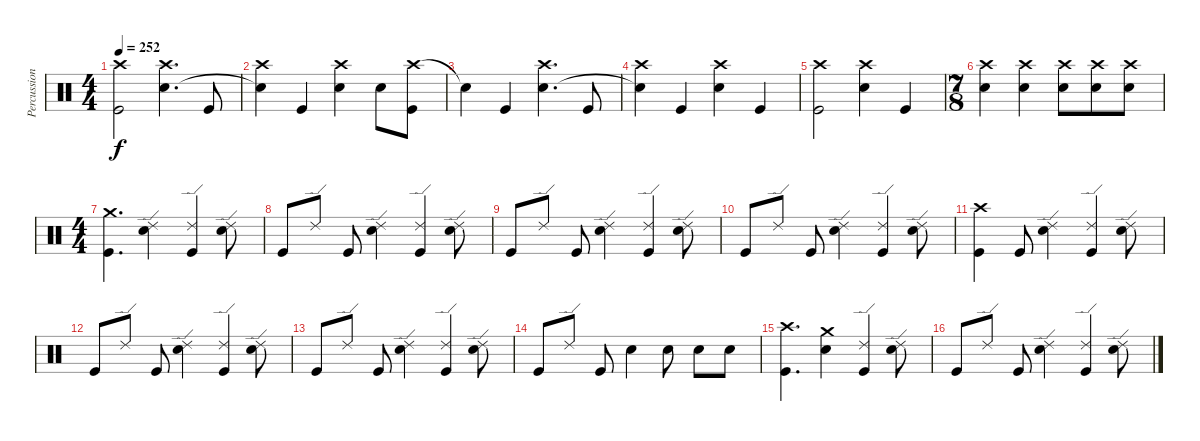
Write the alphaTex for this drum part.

\track ("Percussion" "Percussion") {instrument percussion}
\staff {score}
\articulation defaults
\ts (4 4)
\tempo 252
\clef neutral
\ks c
("Crash high (hit)" "Kick (hit)").2{dy f} ("Crash high (hit)" "Electric Snare (hit)").4{d} "Kick (hit)".8 |
("Crash high (hit)" "Snare (hit)"{t}).4 "Kick (hit)".4 ("Crash high (hit)" "Electric Snare (hit)").4 "Electric Snare (hit)".8 ("Crash high (hit)" "Kick (hit)").8 |
"Snare (hit)"{t}.4 "Kick (hit)".4 ("Crash high (hit)" "Electric Snare (hit)").4{d} "Kick (hit)".8 |
("Crash high (hit)" "Snare (hit)"{t}).4 "Kick (hit)".4 ("Crash high (hit)" "Electric Snare (hit)").4 "Kick (hit)".4 |
("Crash high (hit)" "Kick (hit)").2 ("Crash high (hit)" "Electric Snare (hit)").4 "Kick (hit)".4 |
\ts (7 8)
("Crash high (hit)" "Electric Snare (hit)").4 ("Crash high (hit)" "Electric Snare (hit)").4 ("Crash high (hit)" "Electric Snare (hit)").8 ("Crash high (hit)" "Electric Snare (hit)").8 ("Crash high (hit)" "Electric Snare (hit)").8 |
\ts (4 4)
("Crash medium (hit)" "Kick (hit)").4{d} ("Ride (edge) 2" "Electric Snare (hit)").4 ("Ride (edge) 2" "Kick (hit)").4 ("Ride (edge) 2" "Electric Snare (hit)").8 |
"Kick (hit)".8 "Ride (edge) 2".8 "Kick (hit)".8 ("Ride (edge) 2" "Electric Snare (hit)").4 ("Ride (edge) 2" "Kick (hit)").4 ("Ride (edge) 2" "Electric Snare (hit)").8 |
"Kick (hit)".8 "Ride (edge) 2".8 "Kick (hit)".8 ("Ride (edge) 2" "Electric Snare (hit)").4 ("Ride (edge) 2" "Kick (hit)").4 ("Ride (edge) 2" "Electric Snare (hit)").8 |
"Kick (hit)".8 "Ride (edge) 2".8 "Kick (hit)".8 ("Ride (edge) 2" "Electric Snare (hit)").4 ("Ride (edge) 2" "Kick (hit)").4 ("Ride (edge) 2" "Electric Snare (hit)").8 |
("Crash high (hit)" "Kick (hit)").4 "Kick (hit)".8 ("Ride (edge) 2" "Electric Snare (hit)").4 ("Ride (edge) 2" "Kick (hit)").4 ("Ride (edge) 2" "Electric Snare (hit)").8 |
"Kick (hit)".8 "Ride (edge) 2".8 "Kick (hit)".8 ("Ride (edge) 2" "Electric Snare (hit)").4 ("Ride (edge) 2" "Kick (hit)").4 ("Ride (edge) 2" "Electric Snare (hit)").8 |
"Kick (hit)".8 "Ride (edge) 2".8 "Kick (hit)".8 ("Ride (edge) 2" "Electric Snare (hit)").4 ("Ride (edge) 2" "Kick (hit)").4 ("Ride (edge) 2" "Electric Snare (hit)").8 |
"Kick (hit)".8 "Ride (edge) 2".8 "Kick (hit)".8 "Electric Snare (hit)".4 "Electric Snare (hit)".8 "Electric Snare (hit)".8 "Electric Snare (hit)".8 |
("Crash high (hit)" "Kick (hit)").4{d} ("Crash medium (hit)" "Electric Snare (hit)").4 ("Ride (edge) 2" "Kick (hit)").4 ("Ride (edge) 2" "Electric Snare (hit)").8 |
"Kick (hit)".8 "Ride (edge) 2".8 "Kick (hit)".8 ("Ride (edge) 2" "Electric Snare (hit)").4 ("Ride (edge) 2" "Kick (hit)").4 ("Ride (edge) 2" "Electric Snare (hit)").8
